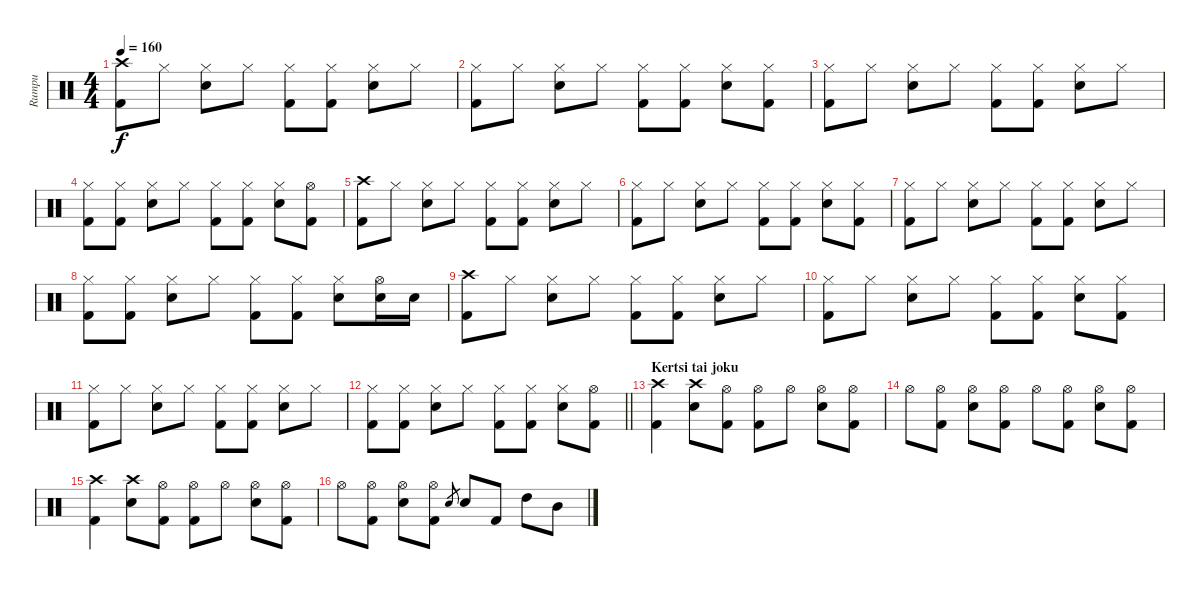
\track ("Rumpu" "Rumpu") {instrument percussion}
\staff {score}
\articulation defaults
\ts (4 4)
\tempo 160
\clef neutral
\ks c
("Crash high (hit)" "Kick (hit) 2").8{dy f} "Hi-Hat (closed)".8 ("Hi-Hat (closed)" "Snare (hit) 2").8 "Hi-Hat (closed)".8 ("Hi-Hat (closed)" "Kick (hit) 2").8 ("Hi-Hat (closed)" "Kick (hit) 2").8 ("Hi-Hat (closed)" "Snare (hit) 2").8 "Hi-Hat (closed)".8 |
("Hi-Hat (closed)" "Kick (hit) 2").8 "Hi-Hat (closed)".8 ("Hi-Hat (closed)" "Snare (hit) 2").8 "Hi-Hat (closed)".8 ("Hi-Hat (closed)" "Kick (hit) 2").8 ("Hi-Hat (closed)" "Kick (hit) 2").8 ("Hi-Hat (closed)" "Snare (hit) 2").8 ("Hi-Hat (closed)" "Kick (hit) 2").8 |
("Hi-Hat (closed)" "Kick (hit) 2").8 "Hi-Hat (closed)".8 ("Hi-Hat (closed)" "Snare (hit) 2").8 "Hi-Hat (closed)".8 ("Hi-Hat (closed)" "Kick (hit) 2").8 ("Hi-Hat (closed)" "Kick (hit) 2").8 ("Hi-Hat (closed)" "Snare (hit) 2").8 "Hi-Hat (closed)".8 |
("Hi-Hat (closed)" "Kick (hit) 2").8 ("Hi-Hat (closed)" "Kick (hit) 2").8 ("Hi-Hat (closed)" "Snare (hit) 2").8 "Hi-Hat (closed)".8 ("Hi-Hat (closed)" "Kick (hit) 2").8 ("Hi-Hat (closed)" "Kick (hit) 2").8 ("Hi-Hat (closed)" "Snare (hit) 2").8 ("Hi-Hat (open)" "Kick (hit) 2").8 |
("Crash high (hit)" "Kick (hit) 2").8 "Hi-Hat (closed)".8 ("Hi-Hat (closed)" "Snare (hit) 2").8 "Hi-Hat (closed)".8 ("Hi-Hat (closed)" "Kick (hit) 2").8 ("Hi-Hat (closed)" "Kick (hit) 2").8 ("Hi-Hat (closed)" "Snare (hit) 2").8 "Hi-Hat (closed)".8 |
("Hi-Hat (closed)" "Kick (hit) 2").8 "Hi-Hat (closed)".8 ("Hi-Hat (closed)" "Snare (hit) 2").8 "Hi-Hat (closed)".8 ("Hi-Hat (closed)" "Kick (hit) 2").8 ("Hi-Hat (closed)" "Kick (hit) 2").8 ("Hi-Hat (closed)" "Snare (hit) 2").8 ("Hi-Hat (closed)" "Kick (hit) 2").8 |
("Hi-Hat (closed)" "Kick (hit) 2").8 "Hi-Hat (closed)".8 ("Hi-Hat (closed)" "Snare (hit) 2").8 "Hi-Hat (closed)".8 ("Hi-Hat (closed)" "Kick (hit) 2").8 ("Hi-Hat (closed)" "Kick (hit) 2").8 ("Hi-Hat (closed)" "Snare (hit) 2").8 "Hi-Hat (closed)".8 |
("Hi-Hat (closed)" "Kick (hit) 2").8 ("Hi-Hat (closed)" "Kick (hit) 2").8 ("Hi-Hat (closed)" "Snare (hit) 2").8 "Hi-Hat (closed)".8 ("Hi-Hat (closed)" "Kick (hit) 2").8 ("Hi-Hat (closed)" "Kick (hit) 2").8 ("Hi-Hat (closed)" "Snare (hit) 2").8 ("Hi-Hat (open)" "Snare (hit) 2").16 "Snare (hit) 2".16 |
("Crash high (hit)" "Kick (hit) 2").8 "Hi-Hat (closed)".8 ("Hi-Hat (closed)" "Snare (hit) 2").8 "Hi-Hat (closed)".8 ("Hi-Hat (closed)" "Kick (hit) 2").8 ("Hi-Hat (closed)" "Kick (hit) 2").8 ("Hi-Hat (closed)" "Snare (hit) 2").8 "Hi-Hat (closed)".8 |
("Hi-Hat (closed)" "Kick (hit) 2").8 "Hi-Hat (closed)".8 ("Hi-Hat (closed)" "Snare (hit) 2").8 "Hi-Hat (closed)".8 ("Hi-Hat (closed)" "Kick (hit) 2").8 ("Hi-Hat (closed)" "Kick (hit) 2").8 ("Hi-Hat (closed)" "Snare (hit) 2").8 ("Hi-Hat (closed)" "Kick (hit) 2").8 |
("Hi-Hat (closed)" "Kick (hit) 2").8 "Hi-Hat (closed)".8 ("Hi-Hat (closed)" "Snare (hit) 2").8 "Hi-Hat (closed)".8 ("Hi-Hat (closed)" "Kick (hit) 2").8 ("Hi-Hat (closed)" "Kick (hit) 2").8 ("Hi-Hat (closed)" "Snare (hit) 2").8 "Hi-Hat (closed)".8 |
\barLineRight lightlight
("Hi-Hat (closed)" "Kick (hit) 2").8 ("Hi-Hat (closed)" "Kick (hit) 2").8 ("Hi-Hat (closed)" "Snare (hit) 2").8 "Hi-Hat (closed)".8 ("Hi-Hat (closed)" "Kick (hit) 2").8 ("Hi-Hat (closed)" "Kick (hit) 2").8 ("Hi-Hat (closed)" "Snare (hit) 2").8 ("Hi-Hat (open)" "Kick (hit) 2").8 |
\section ("" "Kertsi tai joku")
("Crash high (hit)" "Kick (hit) 2").4 ("Crash high (hit)" "Snare (hit) 2").8 ("Hi-Hat (open)" "Kick (hit) 2").8 ("Hi-Hat (open)" "Kick (hit) 2").8 "Hi-Hat (open)".8 ("Hi-Hat (open)" "Snare (hit) 2").8 ("Hi-Hat (open)" "Kick (hit) 2").8 |
"Hi-Hat (open)".8 ("Hi-Hat (open)" "Kick (hit) 2").8 ("Hi-Hat (open)" "Snare (hit) 2").8 ("Hi-Hat (open)" "Kick (hit) 2").8 "Hi-Hat (open)".8 ("Hi-Hat (open)" "Kick (hit) 2").8 ("Hi-Hat (open)" "Snare (hit) 2").8 ("Hi-Hat (open)" "Kick (hit) 2").8 |
("Crash high (hit)" "Kick (hit) 2").4 ("Crash high (hit)" "Snare (hit) 2").8 ("Hi-Hat (open)" "Kick (hit) 2").8 ("Hi-Hat (open)" "Kick (hit) 2").8 "Hi-Hat (open)".8 ("Hi-Hat (open)" "Snare (hit) 2").8 ("Hi-Hat (open)" "Kick (hit) 2").8 |
"Hi-Hat (open)".8 ("Hi-Hat (open)" "Kick (hit) 2").8 ("Hi-Hat (open)" "Snare (hit) 2").8 ("Hi-Hat (open)" "Kick (hit) 2").8 "Snare (hit) 2"{sl}.8{gr} "Snare (hit) 2".8 "Kick (hit) 2".8 "High Tom (hit)".8 "Mid Tom (hit)".8
